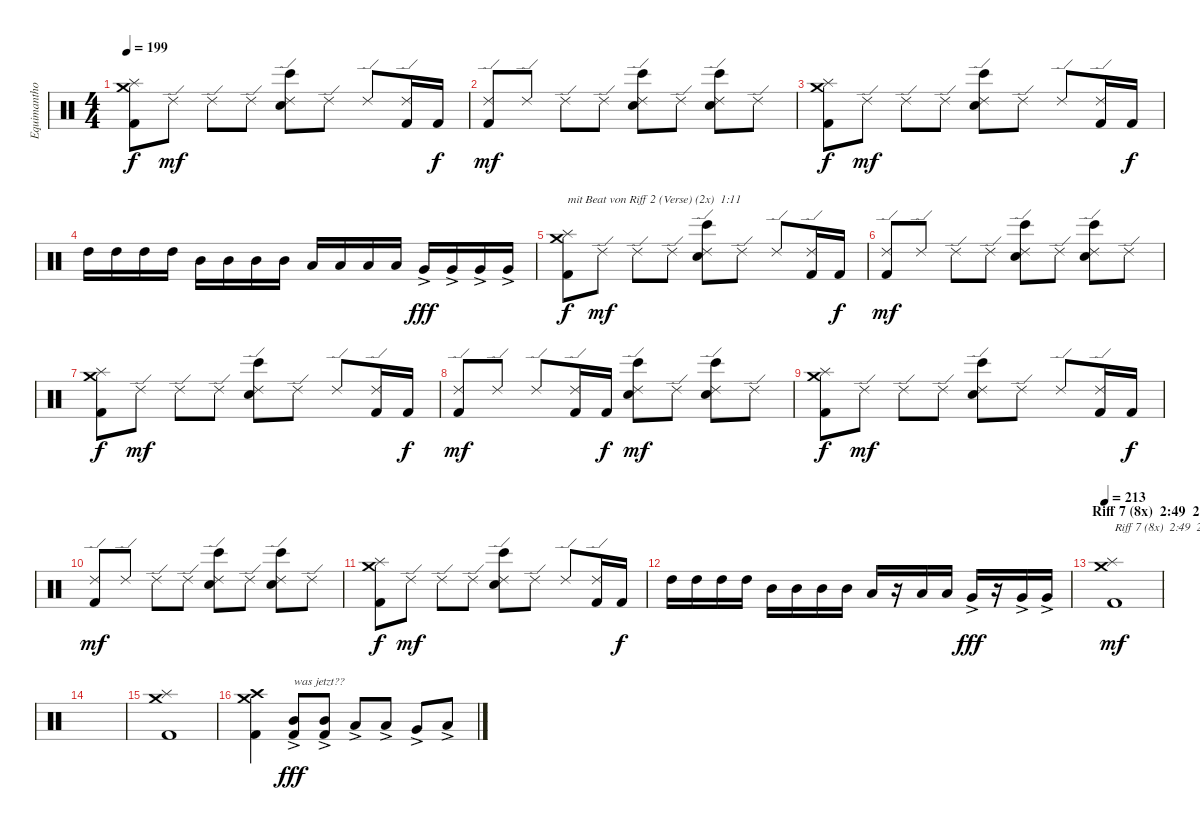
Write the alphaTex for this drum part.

\track ("Equimanthorn" "Equimantho") {instrument percussion}
\staff {score}
\articulation defaults
\ts (4 4)
\tempo 199
\clef neutral
\ks c
("Kick (hit) 2" "Splash (hit)" "Crash medium (hit)").8{dy f} "Ride (edge) 2".8{dy mf} "Ride (edge) 2".8 "Ride (edge) 2".8 ("Bongo High (hit)" "Electric Snare (hit)" "Ride (edge) 2").8 "Ride (edge) 2".8 "Ride (edge) 2".8 ("Kick (hit) 2" "Ride (edge) 2").16 "Kick (hit) 2".16{dy f} |
("Kick (hit) 2" "Ride (edge) 2").8{dy mf} "Ride (edge) 2".8 "Ride (edge) 2".8 "Ride (edge) 2".8 ("Bongo High (hit)" "Electric Snare (hit)" "Ride (edge) 2").8 "Ride (edge) 2".8 ("Bongo High (hit)" "Electric Snare (hit)" "Ride (edge) 2").8 "Ride (edge) 2".8 |
("Kick (hit) 2" "Splash (hit)" "Crash medium (hit)").8{dy f} "Ride (edge) 2".8{dy mf} "Ride (edge) 2".8 "Ride (edge) 2".8 ("Bongo High (hit)" "Electric Snare (hit)" "Ride (edge) 2").8 "Ride (edge) 2".8 "Ride (edge) 2".8 ("Kick (hit) 2" "Ride (edge) 2").16 "Kick (hit) 2".16{dy f} |
"High Tom (hit)".16 "High Tom (hit)".16 "High Tom (hit)".16 "High Tom (hit)".16 "Mid Tom (hit)".16 "Mid Tom (hit)".16 "Mid Tom (hit)".16 "Mid Tom (hit)".16 "Low Tom (hit)".16 "Low Tom (hit)".16 "Low Tom (hit)".16 "Low Tom (hit)".16 "Very Low Tom (hit)"{ac}.16{dy fff} "Very Low Tom (hit)"{ac}.16 "Very Low Tom (hit)"{ac}.16 "Very Low Tom (hit)"{ac}.16 |
("Kick (hit) 2" "Splash (hit)" "Crash medium (hit)").8{txt "mit Beat von Riff 2 (Verse) (2x)  1:11" dy f} "Ride (edge) 2".8{dy mf} "Ride (edge) 2".8 "Ride (edge) 2".8 ("Bongo High (hit)" "Electric Snare (hit)" "Ride (edge) 2").8 "Ride (edge) 2".8 "Ride (edge) 2".8 ("Kick (hit) 2" "Ride (edge) 2").16 "Kick (hit) 2".16{dy f} |
("Kick (hit) 2" "Ride (edge) 2").8{dy mf} "Ride (edge) 2".8 "Ride (edge) 2".8 "Ride (edge) 2".8 ("Bongo High (hit)" "Electric Snare (hit)" "Ride (edge) 2").8 "Ride (edge) 2".8 ("Bongo High (hit)" "Electric Snare (hit)" "Ride (edge) 2").8 "Ride (edge) 2".8 |
("Kick (hit) 2" "Splash (hit)" "Crash medium (hit)").8{dy f} "Ride (edge) 2".8{dy mf} "Ride (edge) 2".8 "Ride (edge) 2".8 ("Bongo High (hit)" "Electric Snare (hit)" "Ride (edge) 2").8 "Ride (edge) 2".8 "Ride (edge) 2".8 ("Kick (hit) 2" "Ride (edge) 2").16 "Kick (hit) 2".16{dy f} |
("Kick (hit) 2" "Ride (edge) 2").8{dy mf} "Ride (edge) 2".8 "Ride (edge) 2".8 ("Kick (hit) 2" "Ride (edge) 2").16 "Kick (hit) 2".16{dy f} ("Bongo High (hit)" "Electric Snare (hit)" "Ride (edge) 2").8{dy mf} "Ride (edge) 2".8 ("Bongo High (hit)" "Electric Snare (hit)" "Ride (edge) 2").8 "Ride (edge) 2".8 |
("Kick (hit) 2" "Splash (hit)" "Crash medium (hit)").8{dy f} "Ride (edge) 2".8{dy mf} "Ride (edge) 2".8 "Ride (edge) 2".8 ("Bongo High (hit)" "Electric Snare (hit)" "Ride (edge) 2").8 "Ride (edge) 2".8 "Ride (edge) 2".8 ("Kick (hit) 2" "Ride (edge) 2").16 "Kick (hit) 2".16{dy f} |
("Kick (hit) 2" "Ride (edge) 2").8{dy mf} "Ride (edge) 2".8 "Ride (edge) 2".8 "Ride (edge) 2".8 ("Bongo High (hit)" "Electric Snare (hit)" "Ride (edge) 2").8 "Ride (edge) 2".8 ("Bongo High (hit)" "Electric Snare (hit)" "Ride (edge) 2").8 "Ride (edge) 2".8 |
("Kick (hit) 2" "Splash (hit)" "Crash medium (hit)").8{dy f} "Ride (edge) 2".8{dy mf} "Ride (edge) 2".8 "Ride (edge) 2".8 ("Bongo High (hit)" "Electric Snare (hit)" "Ride (edge) 2").8 "Ride (edge) 2".8 "Ride (edge) 2".8 ("Kick (hit) 2" "Ride (edge) 2").16 "Kick (hit) 2".16{dy f} |
"High Tom (hit)".16 "High Tom (hit)".16 "High Tom (hit)".16 "High Tom (hit)".16 "Mid Tom (hit)".16 "Mid Tom (hit)".16 "Mid Tom (hit)".16 "Mid Tom (hit)".16 "Low Tom (hit)".16 r.16 "Low Tom (hit)".16 "Low Tom (hit)".16 "Very Low Tom (hit)"{ac}.16{dy fff} r.16 "Very Low Tom (hit)"{ac}.16 "Very Low Tom (hit)"{ac}.16 |
\section ("" "Riff 7 (8x)  2:49  213 bpm")
\tempo 213
("Kick (hit) 2" "Splash (hit)" "Crash medium (hit)").1{txt "Riff 7 (8x)  2:49  213 bpm" dy mf} |
|
("Kick (hit) 2" "Splash (hit)" "Crash medium (hit)").1 |
("Kick (hit) 2" "Crash high (hit)" "Crash medium (hit)").4 ("Kick (hit) 2" "Mid Tom (hit)"{ac}).8{txt "was jetzt??" dy fff} ("Kick (hit) 2" "Mid Tom (hit)"{ac}).8 "Low Tom (hit)"{ac}.8 "Low Tom (hit)"{ac}.8 "Very Low Tom (hit)"{ac}.8 "Low Floor Tom (hit)"{ac}.8
